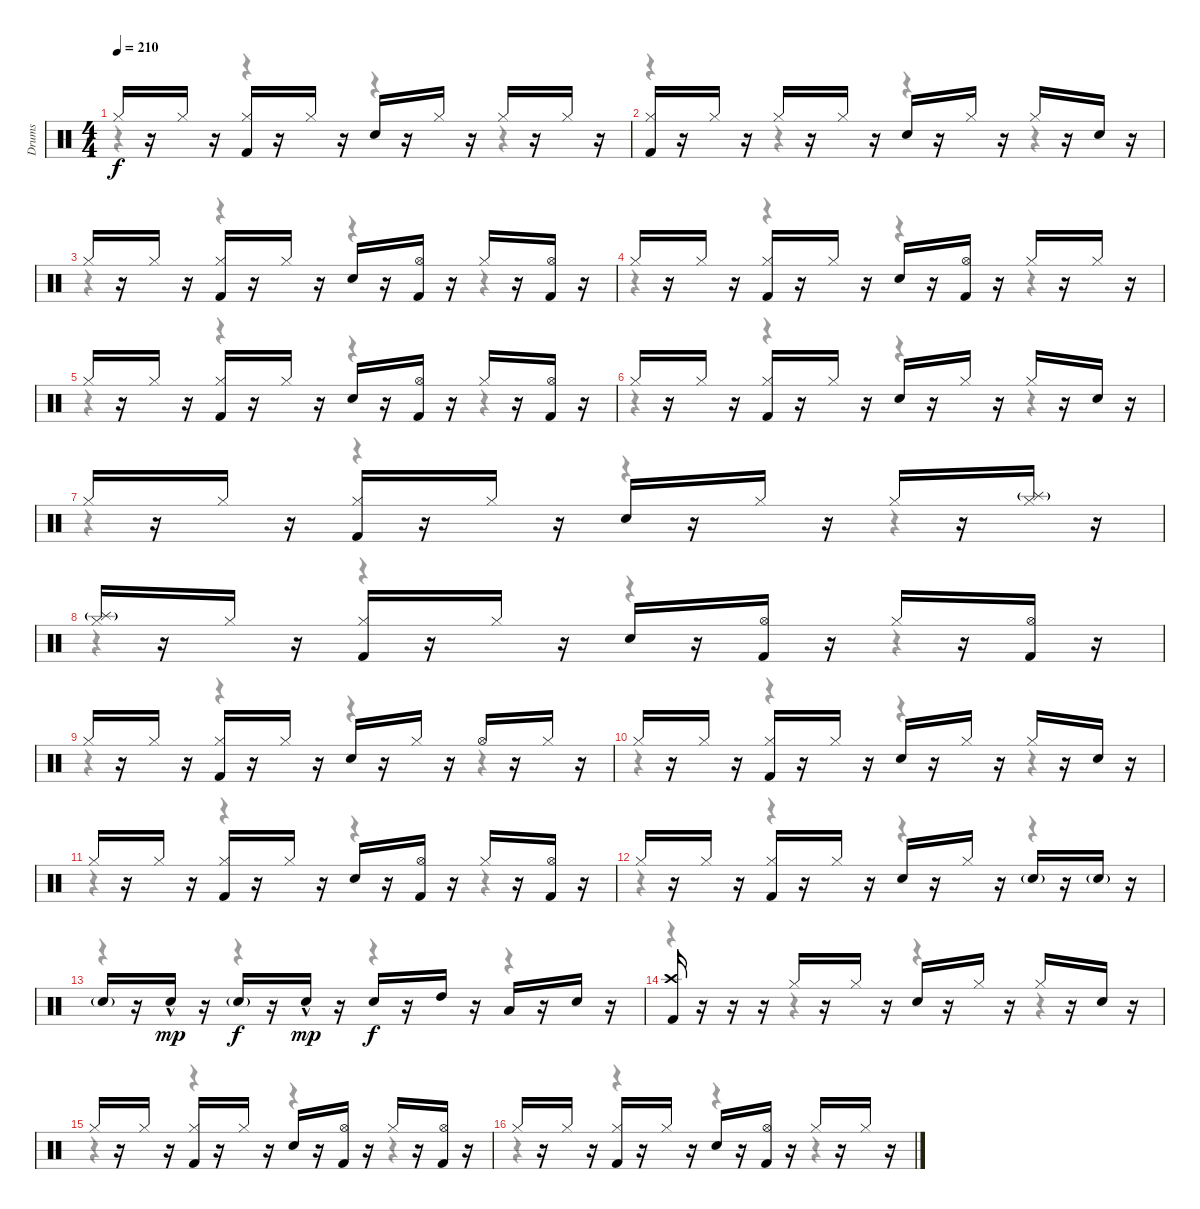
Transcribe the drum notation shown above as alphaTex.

\track ("Drums" "Drums") {instrument percussion}
\staff {score}
\articulation defaults
\voice
\ts (4 4)
\tempo 210
\clef neutral
\ks c "Hi-Hat (closed)".16{dy f}
r.16 "Hi-Hat (closed)".16 r.16 ("Kick (hit) 2" "Hi-Hat (closed)").16 r.16 "Hi-Hat (closed)".16 r.16 "Snare (hit) 2".16 r.16 "Hi-Hat (closed)".16 r.16 "Hi-Hat (closed)".16 r.16 "Hi-Hat (closed)".16 r.16 |
("Kick (hit) 2" "Hi-Hat (closed)").16 r.16 "Hi-Hat (closed)".16 r.16 "Hi-Hat (closed)".16 r.16 "Hi-Hat (closed)".16 r.16 "Snare (hit) 2".16 r.16 "Hi-Hat (closed)".16 r.16 "Hi-Hat (closed)".16 r.16 "Snare (hit) 2".16 r.16 |
"Hi-Hat (closed)".16 r.16 "Hi-Hat (closed)".16 r.16 ("Kick (hit) 2" "Hi-Hat (closed)").16 r.16 "Hi-Hat (closed)".16 r.16 "Snare (hit) 2".16 r.16 ("Kick (hit) 2" "Hi-Hat (open)").16 r.16 "Hi-Hat (closed)".16 r.16 ("Kick (hit) 2" "Hi-Hat (open)").16 r.16 |
"Hi-Hat (closed)".16 r.16 "Hi-Hat (closed)".16 r.16 ("Kick (hit) 2" "Hi-Hat (closed)").16 r.16 "Hi-Hat (closed)".16 r.16 "Snare (hit) 2".16 r.16 ("Kick (hit) 2" "Hi-Hat (open)").16 r.16 "Hi-Hat (closed)".16 r.16 "Hi-Hat (closed)".16 r.16 |
"Hi-Hat (closed)".16 r.16 "Hi-Hat (closed)".16 r.16 ("Kick (hit) 2" "Hi-Hat (closed)").16 r.16 "Hi-Hat (closed)".16 r.16 "Snare (hit) 2".16 r.16 ("Kick (hit) 2" "Hi-Hat (open)").16 r.16 "Hi-Hat (closed)".16 r.16 ("Kick (hit) 2" "Hi-Hat (open)").16 r.16 |
"Hi-Hat (closed)".16 r.16 "Hi-Hat (closed)".16 r.16 ("Kick (hit) 2" "Hi-Hat (closed)").16 r.16 "Hi-Hat (closed)".16 r.16 "Snare (hit) 2".16 r.16 "Hi-Hat (closed)".16 r.16 "Hi-Hat (closed)".16 r.16 "Snare (hit) 2".16 r.16 |
"Hi-Hat (closed)".16 r.16 "Hi-Hat (closed)".16 r.16 ("Kick (hit) 2" "Hi-Hat (closed)").16 r.16 "Hi-Hat (closed)".16 r.16 "Snare (hit) 2".16 r.16 "Hi-Hat (closed)".16 r.16 "Hi-Hat (closed)".16 r.16 ("Splash (hit)"{g} "Hi-Hat (closed)").16 r.16 |
("Splash (hit)"{g} "Hi-Hat (closed)").16 r.16 "Hi-Hat (closed)".16 r.16 ("Kick (hit) 2" "Hi-Hat (closed)").16 r.16 "Hi-Hat (closed)".16 r.16 "Snare (hit) 2".16 r.16 ("Kick (hit) 2" "Hi-Hat (open)").16 r.16 "Hi-Hat (closed)".16 r.16 ("Kick (hit) 2" "Hi-Hat (open)").16 r.16 |
"Hi-Hat (closed)".16 r.16 "Hi-Hat (closed)".16 r.16 ("Kick (hit) 2" "Hi-Hat (closed)").16 r.16 "Hi-Hat (closed)".16 r.16 "Snare (hit) 2".16 r.16 "Hi-Hat (closed)".16 r.16 "Hi-Hat (open)".16 r.16 "Hi-Hat (closed)".16 r.16 |
"Hi-Hat (closed)".16 r.16 "Hi-Hat (closed)".16 r.16 ("Kick (hit) 2" "Hi-Hat (closed)").16 r.16 "Hi-Hat (closed)".16 r.16 "Snare (hit) 2".16 r.16 "Hi-Hat (closed)".16 r.16 "Hi-Hat (closed)".16 r.16 "Snare (hit) 2".16 r.16 |
"Hi-Hat (closed)".16 r.16 "Hi-Hat (closed)".16 r.16 ("Kick (hit) 2" "Hi-Hat (closed)").16 r.16 "Hi-Hat (closed)".16 r.16 "Snare (hit) 2".16 r.16 ("Kick (hit) 2" "Hi-Hat (open)").16 r.16 "Hi-Hat (closed)".16 r.16 ("Kick (hit) 2" "Hi-Hat (open)").16 r.16 |
"Hi-Hat (closed)".16 r.16 "Hi-Hat (closed)".16 r.16 ("Kick (hit) 2" "Hi-Hat (closed)").16 r.16 "Hi-Hat (closed)".16 r.16 "Snare (hit) 2".16 r.16 "Hi-Hat (closed)".16 r.16 "Snare (hit) 2"{g}.16 r.16 "Snare (hit) 2"{g}.16 r.16 |
"Snare (hit) 2"{g}.16 r.16 "Snare (hit) 2"{hac}.16{dy mp} r.16 "Snare (hit) 2"{g}.16{dy f} r.16 "Snare (hit) 2"{hac}.16{dy mp} r.16 "Snare (hit) 2".16{dy f} r.16 "High Tom (hit)".16 r.16 "Low Tom (hit)".16 r.16 "Snare (hit) 2".16 r.16 |
("Kick (hit) 2" "Crash high (hit)").16 r.16 r.16 r.16 "Hi-Hat (closed)".16 r.16 "Hi-Hat (closed)".16 r.16 "Snare (hit) 2".16 r.16 "Hi-Hat (closed)".16 r.16 "Hi-Hat (closed)".16 r.16 "Snare (hit) 2".16 r.16 |
"Hi-Hat (closed)".16 r.16 "Hi-Hat (closed)".16 r.16 ("Kick (hit) 2" "Hi-Hat (closed)").16 r.16 "Hi-Hat (closed)".16 r.16 "Snare (hit) 2".16 r.16 ("Kick (hit) 2" "Hi-Hat (open)").16 r.16 "Hi-Hat (closed)".16 r.16 ("Kick (hit) 2" "Hi-Hat (open)").16 r.16 |
"Hi-Hat (closed)".16 r.16 "Hi-Hat (closed)".16 r.16 ("Kick (hit) 2" "Hi-Hat (closed)").16 r.16 "Hi-Hat (closed)".16 r.16 "Snare (hit) 2".16 r.16 ("Kick (hit) 2" "Hi-Hat (open)").16 r.16 "Hi-Hat (closed)".16 r.16 "Hi-Hat (closed)".16 r.16
\voice
\clef neutral
\ottava regular
\simile none
\ks c
r.4{dy mf} r.4 r.4 r.4 |
r.4 r.4 r.4 r.4 |
r.4 r.4 r.4 r.4 |
r.4 r.4 r.4 r.4 |
r.4 r.4 r.4 r.4 |
r.4 r.4 r.4 r.4 |
r.4 r.4 r.4 r.4 |
r.4 r.4 r.4 r.4 |
r.4 r.4 r.4 r.4 |
r.4 r.4 r.4 r.4 |
r.4 r.4 r.4 r.4 |
r.4 r.4 r.4 r.4 |
r.4 r.4 r.4 r.4 |
r.4 r.4 r.4 r.4 |
r.4 r.4 r.4 r.4 |
r.4 r.4 r.4 r.4
